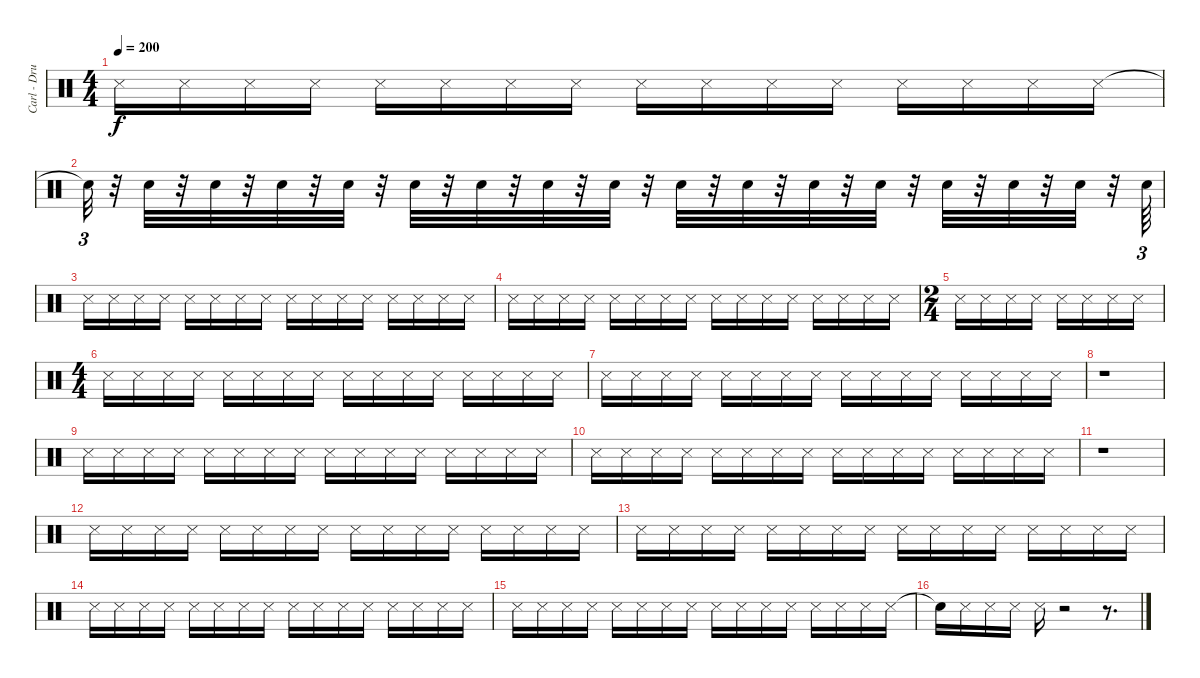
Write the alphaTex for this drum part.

\track ("Carl - Drums" "Carl - Dru") {instrument percussion}
\staff {score}
\articulation defaults
\ts (4 4)
\tempo 200
\clef neutral
\ks c "Metronome (hit)".16{dy f} "Metronome (hit)".16 "Metronome (hit)".16 "Metronome (hit)".16 "Metronome (hit)".16 "Metronome (hit)".16 "Metronome (hit)".16 "Metronome (hit)".16 "Metronome (hit)".16 "Metronome (hit)".16 "Metronome (hit)".16 "Metronome (hit)".16 "Metronome (hit)".16 "Metronome (hit)".16 "Metronome (hit)".16 "Metronome (hit)".16
|
"Snare (hit)"{t}.32{tu (3 2)} r.32 "Hand Clap (hit)".32 r.32 "Hand Clap (hit)".32 r.32 "Hand Clap (hit)".32 r.32 "Hand Clap (hit)".32 r.32 "Hand Clap (hit)".32 r.32 "Hand Clap (hit)".32 r.32 "Hand Clap (hit)".32 r.32 "Hand Clap (hit)".32 r.32 "Hand Clap (hit)".32 r.32 "Hand Clap (hit)".32 r.32 "Hand Clap (hit)".32 r.32 "Hand Clap (hit)".32 r.32 "Hand Clap (hit)".32 r.32 "Hand Clap (hit)".32 r.32 "Hand Clap (hit)".32 r.32 "Hand Clap (hit)".64{tu (3 2)} |
"Metronome (hit)".16 "Metronome (hit)".16 "Metronome (hit)".16 "Metronome (hit)".16 "Metronome (hit)".16 "Metronome (hit)".16 "Metronome (hit)".16 "Metronome (hit)".16 "Metronome (hit)".16 "Metronome (hit)".16 "Metronome (hit)".16 "Metronome (hit)".16 "Metronome (hit)".16 "Metronome (hit)".16 "Metronome (hit)".16 "Metronome (hit)".16 |
"Metronome (hit)".16 "Metronome (hit)".16 "Metronome (hit)".16 "Metronome (hit)".16 "Metronome (hit)".16 "Metronome (hit)".16 "Metronome (hit)".16 "Metronome (hit)".16 "Metronome (hit)".16 "Metronome (hit)".16 "Metronome (hit)".16 "Metronome (hit)".16 "Metronome (hit)".16 "Metronome (hit)".16 "Metronome (hit)".16 "Metronome (hit)".16 |
\ts (2 4)
"Metronome (hit)".16 "Metronome (hit)".16 "Metronome (hit)".16 "Metronome (hit)".16 "Metronome (hit)".16 "Metronome (hit)".16 "Metronome (hit)".16 "Metronome (hit)".16 |
\ts (4 4)
"Metronome (hit)".16 "Metronome (hit)".16 "Metronome (hit)".16 "Metronome (hit)".16 "Metronome (hit)".16 "Metronome (hit)".16 "Metronome (hit)".16 "Metronome (hit)".16 "Metronome (hit)".16 "Metronome (hit)".16 "Metronome (hit)".16 "Metronome (hit)".16 "Metronome (hit)".16 "Metronome (hit)".16 "Metronome (hit)".16 "Metronome (hit)".16 |
"Metronome (hit)".16 "Metronome (hit)".16 "Metronome (hit)".16 "Metronome (hit)".16 "Metronome (hit)".16 "Metronome (hit)".16 "Metronome (hit)".16 "Metronome (hit)".16 "Metronome (hit)".16 "Metronome (hit)".16 "Metronome (hit)".16 "Metronome (hit)".16 "Metronome (hit)".16 "Metronome (hit)".16 "Metronome (hit)".16 "Metronome (hit)".16 |
r.1 |
"Metronome (hit)".16 "Metronome (hit)".16 "Metronome (hit)".16 "Metronome (hit)".16 "Metronome (hit)".16 "Metronome (hit)".16 "Metronome (hit)".16 "Metronome (hit)".16 "Metronome (hit)".16 "Metronome (hit)".16 "Metronome (hit)".16 "Metronome (hit)".16 "Metronome (hit)".16 "Metronome (hit)".16 "Metronome (hit)".16 "Metronome (hit)".16 |
"Metronome (hit)".16 "Metronome (hit)".16 "Metronome (hit)".16 "Metronome (hit)".16 "Metronome (hit)".16 "Metronome (hit)".16 "Metronome (hit)".16 "Metronome (hit)".16 "Metronome (hit)".16 "Metronome (hit)".16 "Metronome (hit)".16 "Metronome (hit)".16 "Metronome (hit)".16 "Metronome (hit)".16 "Metronome (hit)".16 "Metronome (hit)".16 |
r.1 |
"Metronome (hit)".16 "Metronome (hit)".16 "Metronome (hit)".16 "Metronome (hit)".16 "Metronome (hit)".16 "Metronome (hit)".16 "Metronome (hit)".16 "Metronome (hit)".16 "Metronome (hit)".16 "Metronome (hit)".16 "Metronome (hit)".16 "Metronome (hit)".16 "Metronome (hit)".16 "Metronome (hit)".16 "Metronome (hit)".16 "Metronome (hit)".16 |
"Metronome (hit)".16 "Metronome (hit)".16 "Metronome (hit)".16 "Metronome (hit)".16 "Metronome (hit)".16 "Metronome (hit)".16 "Metronome (hit)".16 "Metronome (hit)".16 "Metronome (hit)".16 "Metronome (hit)".16 "Metronome (hit)".16 "Metronome (hit)".16 "Metronome (hit)".16 "Metronome (hit)".16 "Metronome (hit)".16 "Metronome (hit)".16 |
"Metronome (hit)".16 "Metronome (hit)".16 "Metronome (hit)".16 "Metronome (hit)".16 "Metronome (hit)".16 "Metronome (hit)".16 "Metronome (hit)".16 "Metronome (hit)".16 "Metronome (hit)".16 "Metronome (hit)".16 "Metronome (hit)".16 "Metronome (hit)".16 "Metronome (hit)".16 "Metronome (hit)".16 "Metronome (hit)".16 "Metronome (hit)".16 |
"Metronome (hit)".16 "Metronome (hit)".16 "Metronome (hit)".16 "Metronome (hit)".16 "Metronome (hit)".16 "Metronome (hit)".16 "Metronome (hit)".16 "Metronome (hit)".16 "Metronome (hit)".16 "Metronome (hit)".16 "Metronome (hit)".16 "Metronome (hit)".16 "Metronome (hit)".16 "Metronome (hit)".16 "Metronome (hit)".16 "Metronome (hit)".16 |
"Snare (hit)"{t}.16 "Metronome (hit)".16 "Metronome (hit)".16 "Metronome (hit)".16 "Metronome (hit)".16 r.2 r.8{d}
